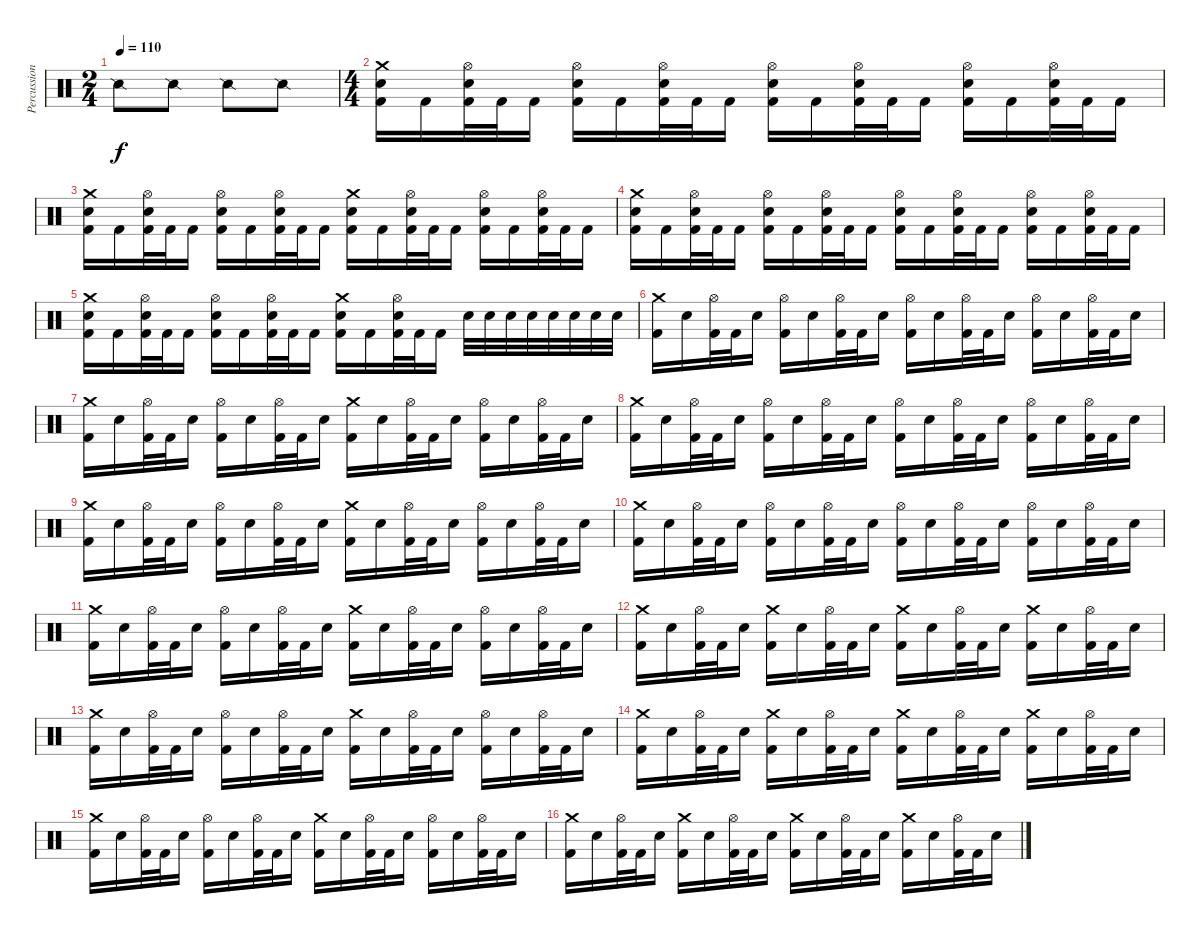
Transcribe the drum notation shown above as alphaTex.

\track ("Percussion" "Percussion") {instrument percussion}
\staff {score}
\articulation defaults
\ts (2 4)
\tempo 110
\clef neutral
\ks c "Snare (side stick) 2".8{dy f} "Snare (side stick) 2".8 "Snare (side stick) 2".8 "Snare (side stick) 2".8
|
\ts (4 4)
("Crash medium (hit)" "Electric Snare (hit)" "Kick (hit) 2").16 "Kick (hit) 2".16 ("Hi-Hat (open)" "Electric Snare (hit)" "Kick (hit) 2").32 "Kick (hit) 2".32 "Kick (hit) 2".16 ("Hi-Hat (open)" "Electric Snare (hit)" "Kick (hit) 2").16 "Kick (hit) 2".16 ("Hi-Hat (open)" "Electric Snare (hit)" "Kick (hit) 2").32 "Kick (hit) 2".32 "Kick (hit) 2".16 ("Hi-Hat (open)" "Electric Snare (hit)" "Kick (hit) 2").16 "Kick (hit) 2".16 ("Hi-Hat (open)" "Electric Snare (hit)" "Kick (hit) 2").32 "Kick (hit) 2".32 "Kick (hit) 2".16 ("Hi-Hat (open)" "Electric Snare (hit)" "Kick (hit) 2").16 "Kick (hit) 2".16 ("Hi-Hat (open)" "Electric Snare (hit)" "Kick (hit) 2").32 "Kick (hit) 2".32 "Kick (hit) 2".16 |
("Crash medium (hit)" "Electric Snare (hit)" "Kick (hit) 2").16 "Kick (hit) 2".16 ("Hi-Hat (open)" "Electric Snare (hit)" "Kick (hit) 2").32 "Kick (hit) 2".32 "Kick (hit) 2".16 ("Hi-Hat (open)" "Electric Snare (hit)" "Kick (hit) 2").16 "Kick (hit) 2".16 ("Hi-Hat (open)" "Electric Snare (hit)" "Kick (hit) 2").32 "Kick (hit) 2".32 "Kick (hit) 2".16 ("Crash medium (hit)" "Electric Snare (hit)" "Kick (hit) 2").16 "Kick (hit) 2".16 ("Hi-Hat (open)" "Electric Snare (hit)" "Kick (hit) 2").32 "Kick (hit) 2".32 "Kick (hit) 2".16 ("Hi-Hat (open)" "Electric Snare (hit)" "Kick (hit) 2").16 "Kick (hit) 2".16 ("Hi-Hat (open)" "Electric Snare (hit)" "Kick (hit) 2").32 "Kick (hit) 2".32 "Kick (hit) 2".16 |
("Crash medium (hit)" "Electric Snare (hit)" "Kick (hit) 2").16 "Kick (hit) 2".16 ("Hi-Hat (open)" "Electric Snare (hit)" "Kick (hit) 2").32 "Kick (hit) 2".32 "Kick (hit) 2".16 ("Hi-Hat (open)" "Electric Snare (hit)" "Kick (hit) 2").16 "Kick (hit) 2".16 ("Hi-Hat (open)" "Electric Snare (hit)" "Kick (hit) 2").32 "Kick (hit) 2".32 "Kick (hit) 2".16 ("Hi-Hat (open)" "Electric Snare (hit)" "Kick (hit) 2").16 "Kick (hit) 2".16 ("Hi-Hat (open)" "Electric Snare (hit)" "Kick (hit) 2").32 "Kick (hit) 2".32 "Kick (hit) 2".16 ("Hi-Hat (open)" "Electric Snare (hit)" "Kick (hit) 2").16 "Kick (hit) 2".16 ("Hi-Hat (open)" "Electric Snare (hit)" "Kick (hit) 2").32 "Kick (hit) 2".32 "Kick (hit) 2".16 |
("Crash medium (hit)" "Electric Snare (hit)" "Kick (hit) 2").16 "Kick (hit) 2".16 ("Hi-Hat (open)" "Electric Snare (hit)" "Kick (hit) 2").32 "Kick (hit) 2".32 "Kick (hit) 2".16 ("Hi-Hat (open)" "Electric Snare (hit)" "Kick (hit) 2").16 "Kick (hit) 2".16 ("Hi-Hat (open)" "Electric Snare (hit)" "Kick (hit) 2").32 "Kick (hit) 2".32 "Kick (hit) 2".16 ("Crash medium (hit)" "Electric Snare (hit)" "Kick (hit) 2").16 "Kick (hit) 2".16 ("Hi-Hat (open)" "Electric Snare (hit)" "Kick (hit) 2").32 "Kick (hit) 2".32 "Kick (hit) 2".16 "Electric Snare (hit)".32 "Electric Snare (hit)".32 "Electric Snare (hit)".32 "Electric Snare (hit)".32 "Electric Snare (hit)".32 "Electric Snare (hit)".32 "Electric Snare (hit)".32 "Electric Snare (hit)".32 |
("Crash medium (hit)" "Kick (hit) 2").16 "Electric Snare (hit)".16 ("Hi-Hat (open)" "Kick (hit) 2").32 "Kick (hit) 2".32 "Electric Snare (hit)".16 ("Hi-Hat (open)" "Kick (hit) 2").16 "Electric Snare (hit)".16 ("Hi-Hat (open)" "Kick (hit) 2").32 "Kick (hit) 2".32 "Electric Snare (hit)".16 ("Hi-Hat (open)" "Kick (hit) 2").16 "Electric Snare (hit)".16 ("Hi-Hat (open)" "Kick (hit) 2").32 "Kick (hit) 2".32 "Electric Snare (hit)".16 ("Hi-Hat (open)" "Kick (hit) 2").16 "Electric Snare (hit)".16 ("Hi-Hat (open)" "Kick (hit) 2").32 "Kick (hit) 2".32 "Electric Snare (hit)".16 |
("Crash medium (hit)" "Kick (hit) 2").16 "Electric Snare (hit)".16 ("Hi-Hat (open)" "Kick (hit) 2").32 "Kick (hit) 2".32 "Electric Snare (hit)".16 ("Hi-Hat (open)" "Kick (hit) 2").16 "Electric Snare (hit)".16 ("Hi-Hat (open)" "Kick (hit) 2").32 "Kick (hit) 2".32 "Electric Snare (hit)".16 ("Crash medium (hit)" "Kick (hit) 2").16 "Electric Snare (hit)".16 ("Hi-Hat (open)" "Kick (hit) 2").32 "Kick (hit) 2".32 "Electric Snare (hit)".16 ("Hi-Hat (open)" "Kick (hit) 2").16 "Electric Snare (hit)".16 ("Hi-Hat (open)" "Kick (hit) 2").32 "Kick (hit) 2".32 "Electric Snare (hit)".16 |
("Crash medium (hit)" "Kick (hit) 2").16 "Electric Snare (hit)".16 ("Hi-Hat (open)" "Kick (hit) 2").32 "Kick (hit) 2".32 "Electric Snare (hit)".16 ("Hi-Hat (open)" "Kick (hit) 2").16 "Electric Snare (hit)".16 ("Hi-Hat (open)" "Kick (hit) 2").32 "Kick (hit) 2".32 "Electric Snare (hit)".16 ("Hi-Hat (open)" "Kick (hit) 2").16 "Electric Snare (hit)".16 ("Hi-Hat (open)" "Kick (hit) 2").32 "Kick (hit) 2".32 "Electric Snare (hit)".16 ("Hi-Hat (open)" "Kick (hit) 2").16 "Electric Snare (hit)".16 ("Hi-Hat (open)" "Kick (hit) 2").32 "Kick (hit) 2".32 "Electric Snare (hit)".16 |
("Crash medium (hit)" "Kick (hit) 2").16 "Electric Snare (hit)".16 ("Hi-Hat (open)" "Kick (hit) 2").32 "Kick (hit) 2".32 "Electric Snare (hit)".16 ("Hi-Hat (open)" "Kick (hit) 2").16 "Electric Snare (hit)".16 ("Hi-Hat (open)" "Kick (hit) 2").32 "Kick (hit) 2".32 "Electric Snare (hit)".16 ("Crash medium (hit)" "Kick (hit) 2").16 "Electric Snare (hit)".16 ("Hi-Hat (open)" "Kick (hit) 2").32 "Kick (hit) 2".32 "Electric Snare (hit)".16 ("Hi-Hat (open)" "Kick (hit) 2").16 "Electric Snare (hit)".16 ("Hi-Hat (open)" "Kick (hit) 2").32 "Kick (hit) 2".32 "Electric Snare (hit)".16 |
("Crash medium (hit)" "Kick (hit) 2").16 "Electric Snare (hit)".16 ("Hi-Hat (open)" "Kick (hit) 2").32 "Kick (hit) 2".32 "Electric Snare (hit)".16 ("Hi-Hat (open)" "Kick (hit) 2").16 "Electric Snare (hit)".16 ("Hi-Hat (open)" "Kick (hit) 2").32 "Kick (hit) 2".32 "Electric Snare (hit)".16 ("Hi-Hat (open)" "Kick (hit) 2").16 "Electric Snare (hit)".16 ("Hi-Hat (open)" "Kick (hit) 2").32 "Kick (hit) 2".32 "Electric Snare (hit)".16 ("Hi-Hat (open)" "Kick (hit) 2").16 "Electric Snare (hit)".16 ("Hi-Hat (open)" "Kick (hit) 2").32 "Kick (hit) 2".32 "Electric Snare (hit)".16 |
("Crash medium (hit)" "Kick (hit) 2").16 "Electric Snare (hit)".16 ("Hi-Hat (open)" "Kick (hit) 2").32 "Kick (hit) 2".32 "Electric Snare (hit)".16 ("Hi-Hat (open)" "Kick (hit) 2").16 "Electric Snare (hit)".16 ("Hi-Hat (open)" "Kick (hit) 2").32 "Kick (hit) 2".32 "Electric Snare (hit)".16 ("Crash medium (hit)" "Kick (hit) 2").16 "Electric Snare (hit)".16 ("Hi-Hat (open)" "Kick (hit) 2").32 "Kick (hit) 2".32 "Electric Snare (hit)".16 ("Hi-Hat (open)" "Kick (hit) 2").16 "Electric Snare (hit)".16 ("Hi-Hat (open)" "Kick (hit) 2").32 "Kick (hit) 2".32 "Electric Snare (hit)".16 |
("Crash medium (hit)" "Kick (hit) 2").16 "Electric Snare (hit)".16 ("Hi-Hat (open)" "Kick (hit) 2").32 "Kick (hit) 2".32 "Electric Snare (hit)".16 ("Crash medium (hit)" "Kick (hit) 2").16 "Electric Snare (hit)".16 ("Hi-Hat (open)" "Kick (hit) 2").32 "Kick (hit) 2".32 "Electric Snare (hit)".16 ("Crash medium (hit)" "Kick (hit) 2").16 "Electric Snare (hit)".16 ("Hi-Hat (open)" "Kick (hit) 2").32 "Kick (hit) 2".32 "Electric Snare (hit)".16 ("Crash medium (hit)" "Kick (hit) 2").16 "Electric Snare (hit)".16 ("Hi-Hat (open)" "Kick (hit) 2").32 "Kick (hit) 2".32 "Electric Snare (hit)".16 |
("Crash medium (hit)" "Kick (hit) 2").16 "Electric Snare (hit)".16 ("Hi-Hat (open)" "Kick (hit) 2").32 "Kick (hit) 2".32 "Electric Snare (hit)".16 ("Hi-Hat (open)" "Kick (hit) 2").16 "Electric Snare (hit)".16 ("Hi-Hat (open)" "Kick (hit) 2").32 "Kick (hit) 2".32 "Electric Snare (hit)".16 ("Crash medium (hit)" "Kick (hit) 2").16 "Electric Snare (hit)".16 ("Hi-Hat (open)" "Kick (hit) 2").32 "Kick (hit) 2".32 "Electric Snare (hit)".16 ("Hi-Hat (open)" "Kick (hit) 2").16 "Electric Snare (hit)".16 ("Hi-Hat (open)" "Kick (hit) 2").32 "Kick (hit) 2".32 "Electric Snare (hit)".16 |
("Crash medium (hit)" "Kick (hit) 2").16 "Electric Snare (hit)".16 ("Hi-Hat (open)" "Kick (hit) 2").32 "Kick (hit) 2".32 "Electric Snare (hit)".16 ("Crash medium (hit)" "Kick (hit) 2").16 "Electric Snare (hit)".16 ("Hi-Hat (open)" "Kick (hit) 2").32 "Kick (hit) 2".32 "Electric Snare (hit)".16 ("Crash medium (hit)" "Kick (hit) 2").16 "Electric Snare (hit)".16 ("Hi-Hat (open)" "Kick (hit) 2").32 "Kick (hit) 2".32 "Electric Snare (hit)".16 ("Crash medium (hit)" "Kick (hit) 2").16 "Electric Snare (hit)".16 ("Hi-Hat (open)" "Kick (hit) 2").32 "Kick (hit) 2".32 "Electric Snare (hit)".16 |
("Crash medium (hit)" "Kick (hit) 2").16 "Electric Snare (hit)".16 ("Hi-Hat (open)" "Kick (hit) 2").32 "Kick (hit) 2".32 "Electric Snare (hit)".16 ("Hi-Hat (open)" "Kick (hit) 2").16 "Electric Snare (hit)".16 ("Hi-Hat (open)" "Kick (hit) 2").32 "Kick (hit) 2".32 "Electric Snare (hit)".16 ("Crash medium (hit)" "Kick (hit) 2").16 "Electric Snare (hit)".16 ("Hi-Hat (open)" "Kick (hit) 2").32 "Kick (hit) 2".32 "Electric Snare (hit)".16 ("Hi-Hat (open)" "Kick (hit) 2").16 "Electric Snare (hit)".16 ("Hi-Hat (open)" "Kick (hit) 2").32 "Kick (hit) 2".32 "Electric Snare (hit)".16 |
("Crash medium (hit)" "Kick (hit) 2").16 "Electric Snare (hit)".16 ("Hi-Hat (open)" "Kick (hit) 2").32 "Kick (hit) 2".32 "Electric Snare (hit)".16 ("Crash medium (hit)" "Kick (hit) 2").16 "Electric Snare (hit)".16 ("Hi-Hat (open)" "Kick (hit) 2").32 "Kick (hit) 2".32 "Electric Snare (hit)".16 ("Crash medium (hit)" "Kick (hit) 2").16 "Electric Snare (hit)".16 ("Hi-Hat (open)" "Kick (hit) 2").32 "Kick (hit) 2".32 "Electric Snare (hit)".16 ("Crash medium (hit)" "Kick (hit) 2").16 "Electric Snare (hit)".16 ("Hi-Hat (open)" "Kick (hit) 2").32 "Kick (hit) 2".32 "Electric Snare (hit)".16
